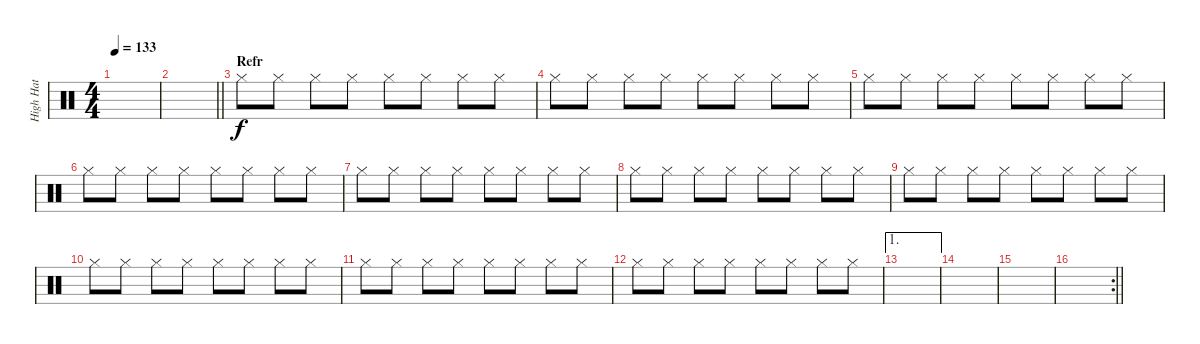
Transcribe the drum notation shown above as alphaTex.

\track ("High Hat" "High Hat") {instrument percussion}
\staff {score}
\articulation defaults
\ts (4 4)
\tempo 133
\clef neutral
\ks c
|
\barLineRight lightlight
|
\section ("" "Refr")
"Hi-Hat (closed)".8 "Hi-Hat (closed)".8 "Hi-Hat (closed)".8 "Hi-Hat (closed)".8 "Hi-Hat (closed)".8 "Hi-Hat (closed)".8 "Hi-Hat (closed)".8 "Hi-Hat (closed)".8 |
"Hi-Hat (closed)".8 "Hi-Hat (closed)".8 "Hi-Hat (closed)".8 "Hi-Hat (closed)".8 "Hi-Hat (closed)".8 "Hi-Hat (closed)".8 "Hi-Hat (closed)".8 "Hi-Hat (closed)".8 |
"Hi-Hat (closed)".8 "Hi-Hat (closed)".8 "Hi-Hat (closed)".8 "Hi-Hat (closed)".8 "Hi-Hat (closed)".8 "Hi-Hat (closed)".8 "Hi-Hat (closed)".8 "Hi-Hat (closed)".8 |
"Hi-Hat (closed)".8 "Hi-Hat (closed)".8 "Hi-Hat (closed)".8 "Hi-Hat (closed)".8 "Hi-Hat (closed)".8 "Hi-Hat (closed)".8 "Hi-Hat (closed)".8 "Hi-Hat (closed)".8 |
"Hi-Hat (closed)".8 "Hi-Hat (closed)".8 "Hi-Hat (closed)".8 "Hi-Hat (closed)".8 "Hi-Hat (closed)".8 "Hi-Hat (closed)".8 "Hi-Hat (closed)".8 "Hi-Hat (closed)".8 |
"Hi-Hat (closed)".8 "Hi-Hat (closed)".8 "Hi-Hat (closed)".8 "Hi-Hat (closed)".8 "Hi-Hat (closed)".8 "Hi-Hat (closed)".8 "Hi-Hat (closed)".8 "Hi-Hat (closed)".8 |
"Hi-Hat (closed)".8 "Hi-Hat (closed)".8 "Hi-Hat (closed)".8 "Hi-Hat (closed)".8 "Hi-Hat (closed)".8 "Hi-Hat (closed)".8 "Hi-Hat (closed)".8 "Hi-Hat (closed)".8 |
"Hi-Hat (closed)".8 "Hi-Hat (closed)".8 "Hi-Hat (closed)".8 "Hi-Hat (closed)".8 "Hi-Hat (closed)".8 "Hi-Hat (closed)".8 "Hi-Hat (closed)".8 "Hi-Hat (closed)".8 |
"Hi-Hat (closed)".8 "Hi-Hat (closed)".8 "Hi-Hat (closed)".8 "Hi-Hat (closed)".8 "Hi-Hat (closed)".8 "Hi-Hat (closed)".8 "Hi-Hat (closed)".8 "Hi-Hat (closed)".8 |
"Hi-Hat (closed)".8 "Hi-Hat (closed)".8 "Hi-Hat (closed)".8 "Hi-Hat (closed)".8 "Hi-Hat (closed)".8 "Hi-Hat (closed)".8 "Hi-Hat (closed)".8 "Hi-Hat (closed)".8 |
\ae 1
|
|
|
\rc 2
\barLineRight lightlight
